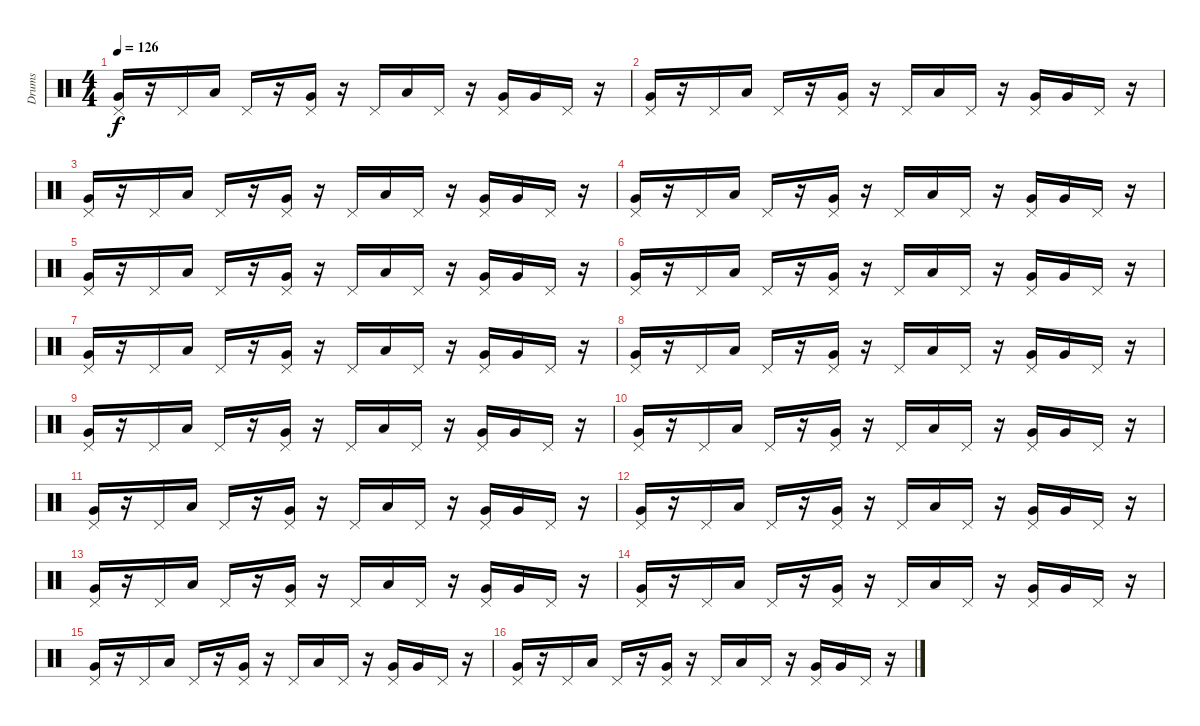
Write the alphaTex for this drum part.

\track ("Drums" "Drums") {instrument percussion}
\staff {score}
\articulation defaults
\ts (4 4)
\tempo 126
\clef neutral
\ks c
("Pedal Hi-Hat (hit)" "Very Low Tom (hit)").16{dy f} r.16 "Pedal Hi-Hat (hit)".16 "Low Floor Tom (hit)".16 "Pedal Hi-Hat (hit)".16 r.16 ("Pedal Hi-Hat (hit)" "Very Low Tom (hit)").16 r.16 "Pedal Hi-Hat (hit)".16 "Low Floor Tom (hit)".16 "Pedal Hi-Hat (hit)".16 r.16 ("Pedal Hi-Hat (hit)" "Very Low Tom (hit)").16 "Very Low Tom (hit)".16 "Pedal Hi-Hat (hit)".16 r.16 |
("Pedal Hi-Hat (hit)" "Very Low Tom (hit)").16 r.16 "Pedal Hi-Hat (hit)".16 "Low Floor Tom (hit)".16 "Pedal Hi-Hat (hit)".16 r.16 ("Pedal Hi-Hat (hit)" "Very Low Tom (hit)").16 r.16 "Pedal Hi-Hat (hit)".16 "Low Floor Tom (hit)".16 "Pedal Hi-Hat (hit)".16 r.16 ("Pedal Hi-Hat (hit)" "Very Low Tom (hit)").16 "Very Low Tom (hit)".16 "Pedal Hi-Hat (hit)".16 r.16 |
("Pedal Hi-Hat (hit)" "Very Low Tom (hit)").16 r.16 "Pedal Hi-Hat (hit)".16 "Low Floor Tom (hit)".16 "Pedal Hi-Hat (hit)".16 r.16 ("Pedal Hi-Hat (hit)" "Very Low Tom (hit)").16 r.16 "Pedal Hi-Hat (hit)".16 "Low Floor Tom (hit)".16 "Pedal Hi-Hat (hit)".16 r.16 ("Pedal Hi-Hat (hit)" "Very Low Tom (hit)").16 "Very Low Tom (hit)".16 "Pedal Hi-Hat (hit)".16 r.16 |
("Pedal Hi-Hat (hit)" "Very Low Tom (hit)").16 r.16 "Pedal Hi-Hat (hit)".16 "Low Floor Tom (hit)".16 "Pedal Hi-Hat (hit)".16 r.16 ("Pedal Hi-Hat (hit)" "Very Low Tom (hit)").16 r.16 "Pedal Hi-Hat (hit)".16 "Low Floor Tom (hit)".16 "Pedal Hi-Hat (hit)".16 r.16 ("Pedal Hi-Hat (hit)" "Very Low Tom (hit)").16 "Very Low Tom (hit)".16 "Pedal Hi-Hat (hit)".16 r.16 |
("Pedal Hi-Hat (hit)" "Very Low Tom (hit)").16 r.16 "Pedal Hi-Hat (hit)".16 "Low Floor Tom (hit)".16 "Pedal Hi-Hat (hit)".16 r.16 ("Pedal Hi-Hat (hit)" "Very Low Tom (hit)").16 r.16 "Pedal Hi-Hat (hit)".16 "Low Floor Tom (hit)".16 "Pedal Hi-Hat (hit)".16 r.16 ("Pedal Hi-Hat (hit)" "Very Low Tom (hit)").16 "Very Low Tom (hit)".16 "Pedal Hi-Hat (hit)".16 r.16 |
("Pedal Hi-Hat (hit)" "Very Low Tom (hit)").16 r.16 "Pedal Hi-Hat (hit)".16 "Low Floor Tom (hit)".16 "Pedal Hi-Hat (hit)".16 r.16 ("Pedal Hi-Hat (hit)" "Very Low Tom (hit)").16 r.16 "Pedal Hi-Hat (hit)".16 "Low Floor Tom (hit)".16 "Pedal Hi-Hat (hit)".16 r.16 ("Pedal Hi-Hat (hit)" "Very Low Tom (hit)").16 "Very Low Tom (hit)".16 "Pedal Hi-Hat (hit)".16 r.16 |
("Pedal Hi-Hat (hit)" "Very Low Tom (hit)").16 r.16 "Pedal Hi-Hat (hit)".16 "Low Floor Tom (hit)".16 "Pedal Hi-Hat (hit)".16 r.16 ("Pedal Hi-Hat (hit)" "Very Low Tom (hit)").16 r.16 "Pedal Hi-Hat (hit)".16 "Low Floor Tom (hit)".16 "Pedal Hi-Hat (hit)".16 r.16 ("Pedal Hi-Hat (hit)" "Very Low Tom (hit)").16 "Very Low Tom (hit)".16 "Pedal Hi-Hat (hit)".16 r.16 |
("Pedal Hi-Hat (hit)" "Very Low Tom (hit)").16 r.16 "Pedal Hi-Hat (hit)".16 "Low Floor Tom (hit)".16 "Pedal Hi-Hat (hit)".16 r.16 ("Pedal Hi-Hat (hit)" "Very Low Tom (hit)").16 r.16 "Pedal Hi-Hat (hit)".16 "Low Floor Tom (hit)".16 "Pedal Hi-Hat (hit)".16 r.16 ("Pedal Hi-Hat (hit)" "Very Low Tom (hit)").16 "Very Low Tom (hit)".16 "Pedal Hi-Hat (hit)".16 r.16 |
("Pedal Hi-Hat (hit)" "Very Low Tom (hit)").16 r.16 "Pedal Hi-Hat (hit)".16 "Low Floor Tom (hit)".16 "Pedal Hi-Hat (hit)".16 r.16 ("Pedal Hi-Hat (hit)" "Very Low Tom (hit)").16 r.16 "Pedal Hi-Hat (hit)".16 "Low Floor Tom (hit)".16 "Pedal Hi-Hat (hit)".16 r.16 ("Pedal Hi-Hat (hit)" "Very Low Tom (hit)").16 "Very Low Tom (hit)".16 "Pedal Hi-Hat (hit)".16 r.16 |
("Pedal Hi-Hat (hit)" "Very Low Tom (hit)").16 r.16 "Pedal Hi-Hat (hit)".16 "Low Floor Tom (hit)".16 "Pedal Hi-Hat (hit)".16 r.16 ("Pedal Hi-Hat (hit)" "Very Low Tom (hit)").16 r.16 "Pedal Hi-Hat (hit)".16 "Low Floor Tom (hit)".16 "Pedal Hi-Hat (hit)".16 r.16 ("Pedal Hi-Hat (hit)" "Very Low Tom (hit)").16 "Very Low Tom (hit)".16 "Pedal Hi-Hat (hit)".16 r.16 |
("Pedal Hi-Hat (hit)" "Very Low Tom (hit)").16 r.16 "Pedal Hi-Hat (hit)".16 "Low Floor Tom (hit)".16 "Pedal Hi-Hat (hit)".16 r.16 ("Pedal Hi-Hat (hit)" "Very Low Tom (hit)").16 r.16 "Pedal Hi-Hat (hit)".16 "Low Floor Tom (hit)".16 "Pedal Hi-Hat (hit)".16 r.16 ("Pedal Hi-Hat (hit)" "Very Low Tom (hit)").16 "Very Low Tom (hit)".16 "Pedal Hi-Hat (hit)".16 r.16 |
("Pedal Hi-Hat (hit)" "Very Low Tom (hit)").16 r.16 "Pedal Hi-Hat (hit)".16 "Low Floor Tom (hit)".16 "Pedal Hi-Hat (hit)".16 r.16 ("Pedal Hi-Hat (hit)" "Very Low Tom (hit)").16 r.16 "Pedal Hi-Hat (hit)".16 "Low Floor Tom (hit)".16 "Pedal Hi-Hat (hit)".16 r.16 ("Pedal Hi-Hat (hit)" "Very Low Tom (hit)").16 "Very Low Tom (hit)".16 "Pedal Hi-Hat (hit)".16 r.16 |
("Pedal Hi-Hat (hit)" "Very Low Tom (hit)").16 r.16 "Pedal Hi-Hat (hit)".16 "Low Floor Tom (hit)".16 "Pedal Hi-Hat (hit)".16 r.16 ("Pedal Hi-Hat (hit)" "Very Low Tom (hit)").16 r.16 "Pedal Hi-Hat (hit)".16 "Low Floor Tom (hit)".16 "Pedal Hi-Hat (hit)".16 r.16 ("Pedal Hi-Hat (hit)" "Very Low Tom (hit)").16 "Very Low Tom (hit)".16 "Pedal Hi-Hat (hit)".16 r.16 |
("Pedal Hi-Hat (hit)" "Very Low Tom (hit)").16 r.16 "Pedal Hi-Hat (hit)".16 "Low Floor Tom (hit)".16 "Pedal Hi-Hat (hit)".16 r.16 ("Pedal Hi-Hat (hit)" "Very Low Tom (hit)").16 r.16 "Pedal Hi-Hat (hit)".16 "Low Floor Tom (hit)".16 "Pedal Hi-Hat (hit)".16 r.16 ("Pedal Hi-Hat (hit)" "Very Low Tom (hit)").16 "Very Low Tom (hit)".16 "Pedal Hi-Hat (hit)".16 r.16 |
("Pedal Hi-Hat (hit)" "Very Low Tom (hit)").16 r.16 "Pedal Hi-Hat (hit)".16 "Low Floor Tom (hit)".16 "Pedal Hi-Hat (hit)".16 r.16 ("Pedal Hi-Hat (hit)" "Very Low Tom (hit)").16 r.16 "Pedal Hi-Hat (hit)".16 "Low Floor Tom (hit)".16 "Pedal Hi-Hat (hit)".16 r.16 ("Pedal Hi-Hat (hit)" "Very Low Tom (hit)").16 "Very Low Tom (hit)".16 "Pedal Hi-Hat (hit)".16 r.16 |
("Pedal Hi-Hat (hit)" "Very Low Tom (hit)").16 r.16 "Pedal Hi-Hat (hit)".16 "Low Floor Tom (hit)".16 "Pedal Hi-Hat (hit)".16 r.16 ("Pedal Hi-Hat (hit)" "Very Low Tom (hit)").16 r.16 "Pedal Hi-Hat (hit)".16 "Low Floor Tom (hit)".16 "Pedal Hi-Hat (hit)".16 r.16 ("Pedal Hi-Hat (hit)" "Very Low Tom (hit)").16 "Very Low Tom (hit)".16 "Pedal Hi-Hat (hit)".16 r.16
